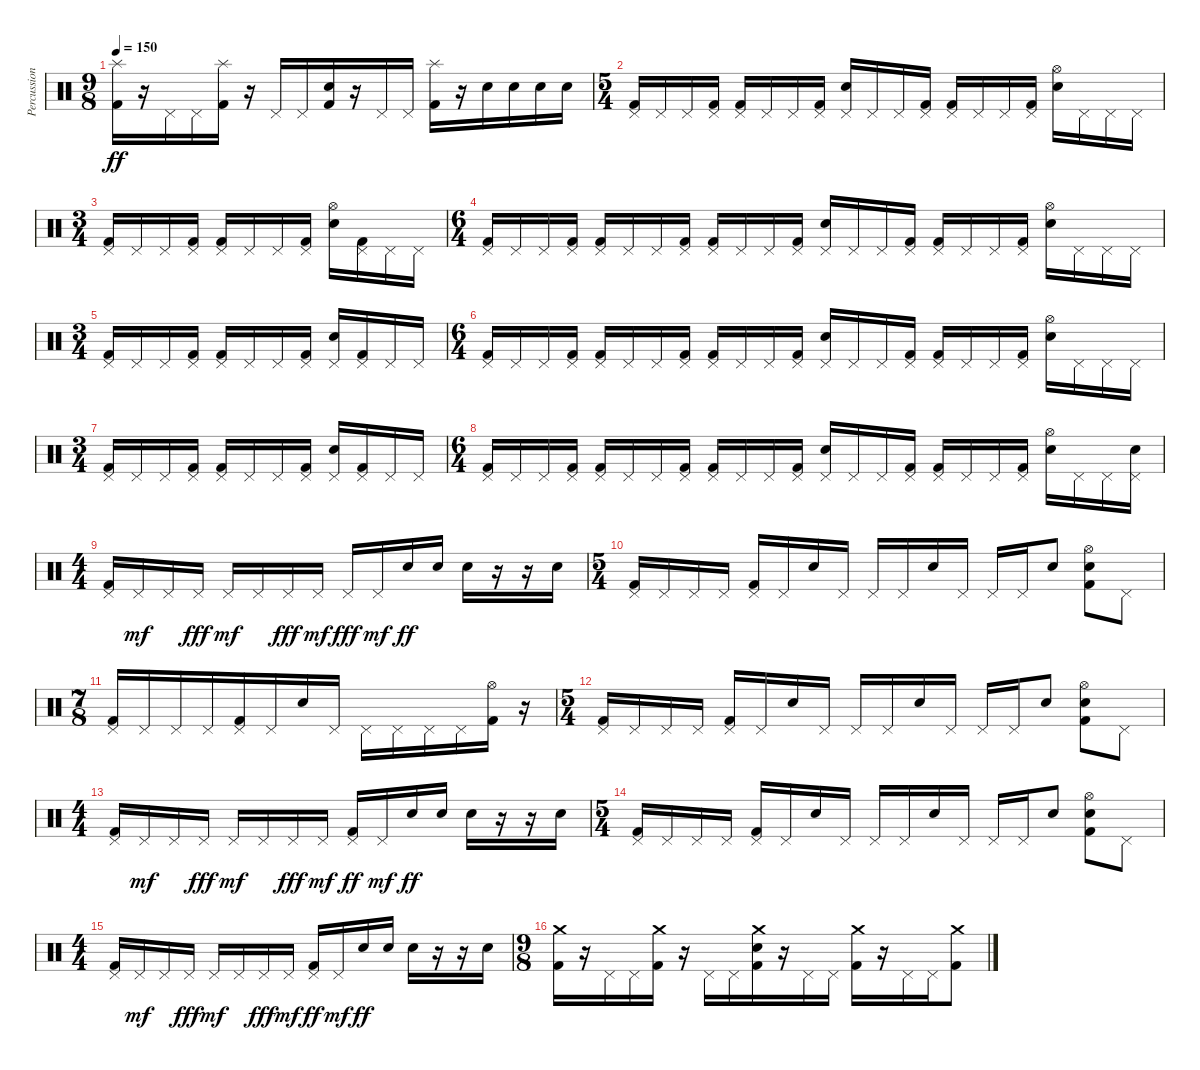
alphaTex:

\track ("Percussion" "Percussion") {instrument percussion}
\staff {score}
\articulation defaults
\ts (9 8)
\tempo 150
\clef neutral
\ks c
("Splash (hit)" "Kick (hit) 2").16{dy ff} r.16 "Pedal Hi-Hat (hit)".16 "Pedal Hi-Hat (hit)".16 ("Splash (hit)" "Kick (hit) 2").16 r.16 "Pedal Hi-Hat (hit)".16 "Pedal Hi-Hat (hit)".16 ("Electric Snare (hit)" "Kick (hit) 2").16 r.16 "Pedal Hi-Hat (hit)".16 "Pedal Hi-Hat (hit)".16 ("Splash (hit)" "Kick (hit) 2").16 r.16 "Electric Snare (hit)".16 "Electric Snare (hit)".16 "Electric Snare (hit)".16 "Electric Snare (hit)".16 |
\ts (5 4)
("Pedal Hi-Hat (hit)" "Kick (hit) 2").16 "Pedal Hi-Hat (hit)".16 "Pedal Hi-Hat (hit)".16 ("Pedal Hi-Hat (hit)" "Kick (hit) 2").16 ("Pedal Hi-Hat (hit)" "Kick (hit) 2").16 "Pedal Hi-Hat (hit)".16 "Pedal Hi-Hat (hit)".16 ("Pedal Hi-Hat (hit)" "Kick (hit) 2").16 ("Pedal Hi-Hat (hit)" "Electric Snare (hit)").16 "Pedal Hi-Hat (hit)".16 "Pedal Hi-Hat (hit)".16 ("Pedal Hi-Hat (hit)" "Kick (hit) 2").16 ("Pedal Hi-Hat (hit)" "Kick (hit) 2").16 "Pedal Hi-Hat (hit)".16 "Pedal Hi-Hat (hit)".16 ("Pedal Hi-Hat (hit)" "Kick (hit) 2").16 ("Hi-Hat (open)" "Electric Snare (hit)").16 "Pedal Hi-Hat (hit)".16 "Pedal Hi-Hat (hit)".16 "Pedal Hi-Hat (hit)".16 |
\ts (3 4)
("Pedal Hi-Hat (hit)" "Kick (hit) 2").16 "Pedal Hi-Hat (hit)".16 "Pedal Hi-Hat (hit)".16 ("Pedal Hi-Hat (hit)" "Kick (hit) 2").16 ("Pedal Hi-Hat (hit)" "Kick (hit) 2").16 "Pedal Hi-Hat (hit)".16 "Pedal Hi-Hat (hit)".16 ("Pedal Hi-Hat (hit)" "Kick (hit) 2").16 ("Hi-Hat (open)" "Electric Snare (hit)").16 ("Pedal Hi-Hat (hit)" "Kick (hit) 2").16 "Pedal Hi-Hat (hit)".16 "Pedal Hi-Hat (hit)".16 |
\ts (6 4)
("Pedal Hi-Hat (hit)" "Kick (hit) 2").16 "Pedal Hi-Hat (hit)".16 "Pedal Hi-Hat (hit)".16 ("Pedal Hi-Hat (hit)" "Kick (hit) 2").16 ("Pedal Hi-Hat (hit)" "Kick (hit) 2").16 "Pedal Hi-Hat (hit)".16 "Pedal Hi-Hat (hit)".16 ("Pedal Hi-Hat (hit)" "Kick (hit) 2").16 ("Pedal Hi-Hat (hit)" "Kick (hit) 2").16 "Pedal Hi-Hat (hit)".16 "Pedal Hi-Hat (hit)".16 ("Pedal Hi-Hat (hit)" "Kick (hit) 2").16 ("Pedal Hi-Hat (hit)" "Electric Snare (hit)").16 "Pedal Hi-Hat (hit)".16 "Pedal Hi-Hat (hit)".16 ("Pedal Hi-Hat (hit)" "Kick (hit) 2").16 ("Pedal Hi-Hat (hit)" "Kick (hit) 2").16 "Pedal Hi-Hat (hit)".16 "Pedal Hi-Hat (hit)".16 ("Pedal Hi-Hat (hit)" "Kick (hit) 2").16 ("Hi-Hat (open)" "Electric Snare (hit)").16 "Pedal Hi-Hat (hit)".16 "Pedal Hi-Hat (hit)".16 "Pedal Hi-Hat (hit)".16 |
\ts (3 4)
("Pedal Hi-Hat (hit)" "Kick (hit) 2").16 "Pedal Hi-Hat (hit)".16 "Pedal Hi-Hat (hit)".16 ("Pedal Hi-Hat (hit)" "Kick (hit) 2").16 ("Pedal Hi-Hat (hit)" "Kick (hit) 2").16 "Pedal Hi-Hat (hit)".16 "Pedal Hi-Hat (hit)".16 ("Pedal Hi-Hat (hit)" "Kick (hit) 2").16 ("Pedal Hi-Hat (hit)" "Electric Snare (hit)").16 ("Pedal Hi-Hat (hit)" "Kick (hit) 2").16 "Pedal Hi-Hat (hit)".16 "Pedal Hi-Hat (hit)".16 |
\ts (6 4)
("Pedal Hi-Hat (hit)" "Kick (hit) 2").16 "Pedal Hi-Hat (hit)".16 "Pedal Hi-Hat (hit)".16 ("Pedal Hi-Hat (hit)" "Kick (hit) 2").16 ("Pedal Hi-Hat (hit)" "Kick (hit) 2").16 "Pedal Hi-Hat (hit)".16 "Pedal Hi-Hat (hit)".16 ("Pedal Hi-Hat (hit)" "Kick (hit) 2").16 ("Pedal Hi-Hat (hit)" "Kick (hit) 2").16 "Pedal Hi-Hat (hit)".16 "Pedal Hi-Hat (hit)".16 ("Pedal Hi-Hat (hit)" "Kick (hit) 2").16 ("Pedal Hi-Hat (hit)" "Electric Snare (hit)").16 "Pedal Hi-Hat (hit)".16 "Pedal Hi-Hat (hit)".16 ("Pedal Hi-Hat (hit)" "Kick (hit) 2").16 ("Pedal Hi-Hat (hit)" "Kick (hit) 2").16 "Pedal Hi-Hat (hit)".16 "Pedal Hi-Hat (hit)".16 ("Pedal Hi-Hat (hit)" "Kick (hit) 2").16 ("Hi-Hat (open)" "Electric Snare (hit)").16 "Pedal Hi-Hat (hit)".16 "Pedal Hi-Hat (hit)".16 "Pedal Hi-Hat (hit)".16 |
\ts (3 4)
("Pedal Hi-Hat (hit)" "Kick (hit) 2").16 "Pedal Hi-Hat (hit)".16 "Pedal Hi-Hat (hit)".16 ("Pedal Hi-Hat (hit)" "Kick (hit) 2").16 ("Pedal Hi-Hat (hit)" "Kick (hit) 2").16 "Pedal Hi-Hat (hit)".16 "Pedal Hi-Hat (hit)".16 ("Pedal Hi-Hat (hit)" "Kick (hit) 2").16 ("Pedal Hi-Hat (hit)" "Electric Snare (hit)").16 ("Pedal Hi-Hat (hit)" "Kick (hit) 2").16 "Pedal Hi-Hat (hit)".16 "Pedal Hi-Hat (hit)".16 |
\ts (6 4)
("Pedal Hi-Hat (hit)" "Kick (hit) 2").16 "Pedal Hi-Hat (hit)".16 "Pedal Hi-Hat (hit)".16 ("Pedal Hi-Hat (hit)" "Kick (hit) 2").16 ("Pedal Hi-Hat (hit)" "Kick (hit) 2").16 "Pedal Hi-Hat (hit)".16 "Pedal Hi-Hat (hit)".16 ("Pedal Hi-Hat (hit)" "Kick (hit) 2").16 ("Pedal Hi-Hat (hit)" "Kick (hit) 2").16 "Pedal Hi-Hat (hit)".16 "Pedal Hi-Hat (hit)".16 ("Pedal Hi-Hat (hit)" "Kick (hit) 2").16 ("Pedal Hi-Hat (hit)" "Electric Snare (hit)").16 "Pedal Hi-Hat (hit)".16 "Pedal Hi-Hat (hit)".16 ("Pedal Hi-Hat (hit)" "Kick (hit) 2").16 ("Pedal Hi-Hat (hit)" "Kick (hit) 2").16 "Pedal Hi-Hat (hit)".16 "Pedal Hi-Hat (hit)".16 ("Pedal Hi-Hat (hit)" "Kick (hit) 2").16 ("Hi-Hat (open)" "Electric Snare (hit)").16 "Pedal Hi-Hat (hit)".16 "Pedal Hi-Hat (hit)".16 ("Pedal Hi-Hat (hit)" "Electric Snare (hit)").16 |
\ts (4 4)
("Pedal Hi-Hat (hit)" "Kick (hit) 2").16 "Pedal Hi-Hat (hit)".16{dy mf} "Pedal Hi-Hat (hit)".16 "Pedal Hi-Hat (hit)".16{dy fff} "Pedal Hi-Hat (hit)".16{dy mf} "Pedal Hi-Hat (hit)".16 "Pedal Hi-Hat (hit)".16{dy fff} "Pedal Hi-Hat (hit)".16{dy mf} "Pedal Hi-Hat (hit)".16{dy fff} "Pedal Hi-Hat (hit)".16{dy mf} "Electric Snare (hit)".16{dy ff} "Electric Snare (hit)".16 "Electric Snare (hit)".16 r.16 r.16 "Electric Snare (hit)".16 |
\ts (5 4)
("Pedal Hi-Hat (hit)" "Kick (hit) 2").16 "Pedal Hi-Hat (hit)".16 "Pedal Hi-Hat (hit)".16 "Pedal Hi-Hat (hit)".16 ("Pedal Hi-Hat (hit)" "Kick (hit) 2").16 "Pedal Hi-Hat (hit)".16 "Electric Snare (hit)".16 "Pedal Hi-Hat (hit)".16 "Pedal Hi-Hat (hit)".16 "Pedal Hi-Hat (hit)".16 "Electric Snare (hit)".16 "Pedal Hi-Hat (hit)".16 "Pedal Hi-Hat (hit)".16 "Pedal Hi-Hat (hit)".16 "Electric Snare (hit)".8 ("Hi-Hat (open)" "Electric Snare (hit)" "Kick (hit) 2").8 "Pedal Hi-Hat (hit)".8 |
\ts (7 8)
("Pedal Hi-Hat (hit)" "Kick (hit) 2").16 "Pedal Hi-Hat (hit)".16 "Pedal Hi-Hat (hit)".16 "Pedal Hi-Hat (hit)".16 ("Pedal Hi-Hat (hit)" "Kick (hit) 2").16 "Pedal Hi-Hat (hit)".16 "Electric Snare (hit)".16 "Pedal Hi-Hat (hit)".16 "Pedal Hi-Hat (hit)".16 "Pedal Hi-Hat (hit)".16 "Pedal Hi-Hat (hit)".16 "Pedal Hi-Hat (hit)".16 ("Hi-Hat (open)" "Kick (hit) 2").16 r.16 |
\ts (5 4)
("Pedal Hi-Hat (hit)" "Kick (hit) 2").16 "Pedal Hi-Hat (hit)".16 "Pedal Hi-Hat (hit)".16 "Pedal Hi-Hat (hit)".16 ("Pedal Hi-Hat (hit)" "Kick (hit) 2").16 "Pedal Hi-Hat (hit)".16 "Electric Snare (hit)".16 "Pedal Hi-Hat (hit)".16 "Pedal Hi-Hat (hit)".16 "Pedal Hi-Hat (hit)".16 "Electric Snare (hit)".16 "Pedal Hi-Hat (hit)".16 "Pedal Hi-Hat (hit)".16 "Pedal Hi-Hat (hit)".16 "Electric Snare (hit)".8 ("Hi-Hat (open)" "Electric Snare (hit)" "Kick (hit) 2").8 "Pedal Hi-Hat (hit)".8 |
\ts (4 4)
("Pedal Hi-Hat (hit)" "Kick (hit) 2").16 "Pedal Hi-Hat (hit)".16{dy mf} "Pedal Hi-Hat (hit)".16 "Pedal Hi-Hat (hit)".16{dy fff} "Pedal Hi-Hat (hit)".16{dy mf} "Pedal Hi-Hat (hit)".16 "Pedal Hi-Hat (hit)".16{dy fff} "Pedal Hi-Hat (hit)".16{dy mf} ("Pedal Hi-Hat (hit)" "Kick (hit) 2").16{dy ff} "Pedal Hi-Hat (hit)".16{dy mf} "Electric Snare (hit)".16{dy ff} "Electric Snare (hit)".16 "Electric Snare (hit)".16 r.16 r.16 "Electric Snare (hit)".16 |
\ts (5 4)
("Pedal Hi-Hat (hit)" "Kick (hit) 2").16 "Pedal Hi-Hat (hit)".16 "Pedal Hi-Hat (hit)".16 "Pedal Hi-Hat (hit)".16 ("Pedal Hi-Hat (hit)" "Kick (hit) 2").16 "Pedal Hi-Hat (hit)".16 "Electric Snare (hit)".16 "Pedal Hi-Hat (hit)".16 "Pedal Hi-Hat (hit)".16 "Pedal Hi-Hat (hit)".16 "Electric Snare (hit)".16 "Pedal Hi-Hat (hit)".16 "Pedal Hi-Hat (hit)".16 "Pedal Hi-Hat (hit)".16 "Electric Snare (hit)".8 ("Hi-Hat (open)" "Electric Snare (hit)" "Kick (hit) 2").8 "Pedal Hi-Hat (hit)".8 |
\ts (4 4)
("Pedal Hi-Hat (hit)" "Kick (hit) 2").16 "Pedal Hi-Hat (hit)".16{dy mf} "Pedal Hi-Hat (hit)".16 "Pedal Hi-Hat (hit)".16{dy fff} "Pedal Hi-Hat (hit)".16{dy mf} "Pedal Hi-Hat (hit)".16 "Pedal Hi-Hat (hit)".16{dy fff} "Pedal Hi-Hat (hit)".16{dy mf} ("Pedal Hi-Hat (hit)" "Kick (hit) 2").16{dy ff} "Pedal Hi-Hat (hit)".16{dy mf} "Electric Snare (hit)".16{dy ff} "Electric Snare (hit)".16 "Electric Snare (hit)".16 r.16 r.16 "Electric Snare (hit)".16 |
\ts (9 8)
("Crash medium (hit)" "Kick (hit) 2").16 r.16 "Pedal Hi-Hat (hit)".16 "Pedal Hi-Hat (hit)".16 ("Crash medium (hit)" "Kick (hit) 2").16 r.16 "Pedal Hi-Hat (hit)".16 "Pedal Hi-Hat (hit)".16 ("Crash medium (hit)" "Electric Snare (hit)" "Kick (hit) 2").16 r.16 "Pedal Hi-Hat (hit)".16 "Pedal Hi-Hat (hit)".16 ("Crash medium (hit)" "Kick (hit) 2").16 r.16 "Pedal Hi-Hat (hit)".16 "Pedal Hi-Hat (hit)".16 ("Crash medium (hit)" "Kick (hit) 2").8
